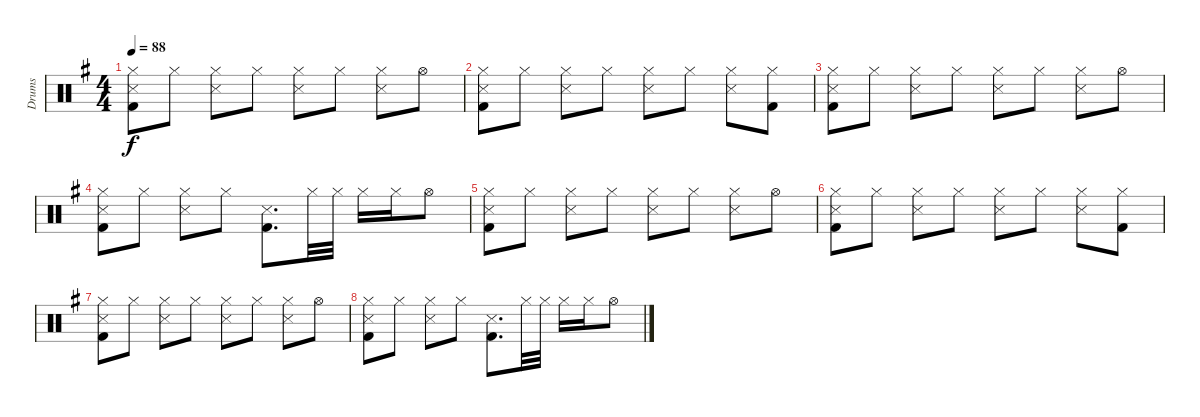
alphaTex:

\track ("Drums" "Drums") {instrument percussion}
\staff {score}
\articulation defaults
\ts (4 4)
\tempo 88
\clef neutral
\ks g
("Hi-Hat (closed)" "Snare (side stick) 3" "Kick (hit) 2").8{dy f} "Hi-Hat (closed)".8 ("Hi-Hat (closed)" "Snare (side stick) 3").8 "Hi-Hat (closed)".8 ("Hi-Hat (closed)" "Snare (side stick) 3").8 "Hi-Hat (closed)".8 ("Hi-Hat (closed)" "Snare (side stick) 3").8 "Hi-Hat (open)".8 |
("Hi-Hat (closed)" "Snare (side stick) 3" "Kick (hit) 2").8 "Hi-Hat (closed)".8 ("Hi-Hat (closed)" "Snare (side stick) 3").8 "Hi-Hat (closed)".8 ("Hi-Hat (closed)" "Snare (side stick) 3").8 "Hi-Hat (closed)".8 ("Hi-Hat (closed)" "Snare (side stick) 3").8 ("Hi-Hat (closed)" "Kick (hit) 2").8 |
("Hi-Hat (closed)" "Snare (side stick) 3" "Kick (hit) 2").8 "Hi-Hat (closed)".8 ("Hi-Hat (closed)" "Snare (side stick) 3").8 "Hi-Hat (closed)".8 ("Hi-Hat (closed)" "Snare (side stick) 3").8 "Hi-Hat (closed)".8 ("Hi-Hat (closed)" "Snare (side stick) 3").8 "Hi-Hat (open)".8 |
("Hi-Hat (closed)" "Snare (side stick) 3" "Kick (hit) 2").8 "Hi-Hat (closed)".8 ("Hi-Hat (closed)" "Snare (side stick) 3").8 "Hi-Hat (closed)".8 ("Snare (side stick) 3" "Kick (hit) 2").8{d} "Hi-Hat (closed)".32 "Hi-Hat (closed)".32 "Hi-Hat (closed)".16 "Hi-Hat (closed)".16 "Hi-Hat (open)".8 |
("Hi-Hat (closed)" "Snare (side stick) 3" "Kick (hit) 2").8 "Hi-Hat (closed)".8 ("Hi-Hat (closed)" "Snare (side stick) 3").8 "Hi-Hat (closed)".8 ("Hi-Hat (closed)" "Snare (side stick) 3").8 "Hi-Hat (closed)".8 ("Hi-Hat (closed)" "Snare (side stick) 3").8 "Hi-Hat (open)".8 |
("Hi-Hat (closed)" "Snare (side stick) 3" "Kick (hit) 2").8 "Hi-Hat (closed)".8 ("Hi-Hat (closed)" "Snare (side stick) 3").8 "Hi-Hat (closed)".8 ("Hi-Hat (closed)" "Snare (side stick) 3").8 "Hi-Hat (closed)".8 ("Hi-Hat (closed)" "Snare (side stick) 3").8 ("Hi-Hat (closed)" "Kick (hit) 2").8 |
("Hi-Hat (closed)" "Snare (side stick) 3" "Kick (hit) 2").8 "Hi-Hat (closed)".8 ("Hi-Hat (closed)" "Snare (side stick) 3").8 "Hi-Hat (closed)".8 ("Hi-Hat (closed)" "Snare (side stick) 3").8 "Hi-Hat (closed)".8 ("Hi-Hat (closed)" "Snare (side stick) 3").8 "Hi-Hat (open)".8 |
("Hi-Hat (closed)" "Snare (side stick) 3" "Kick (hit) 2").8 "Hi-Hat (closed)".8 ("Hi-Hat (closed)" "Snare (side stick) 3").8 "Hi-Hat (closed)".8 ("Snare (side stick) 3" "Kick (hit) 2").8{d} "Hi-Hat (closed)".32 "Hi-Hat (closed)".32 "Hi-Hat (closed)".16 "Hi-Hat (closed)".16 "Hi-Hat (open)".8
